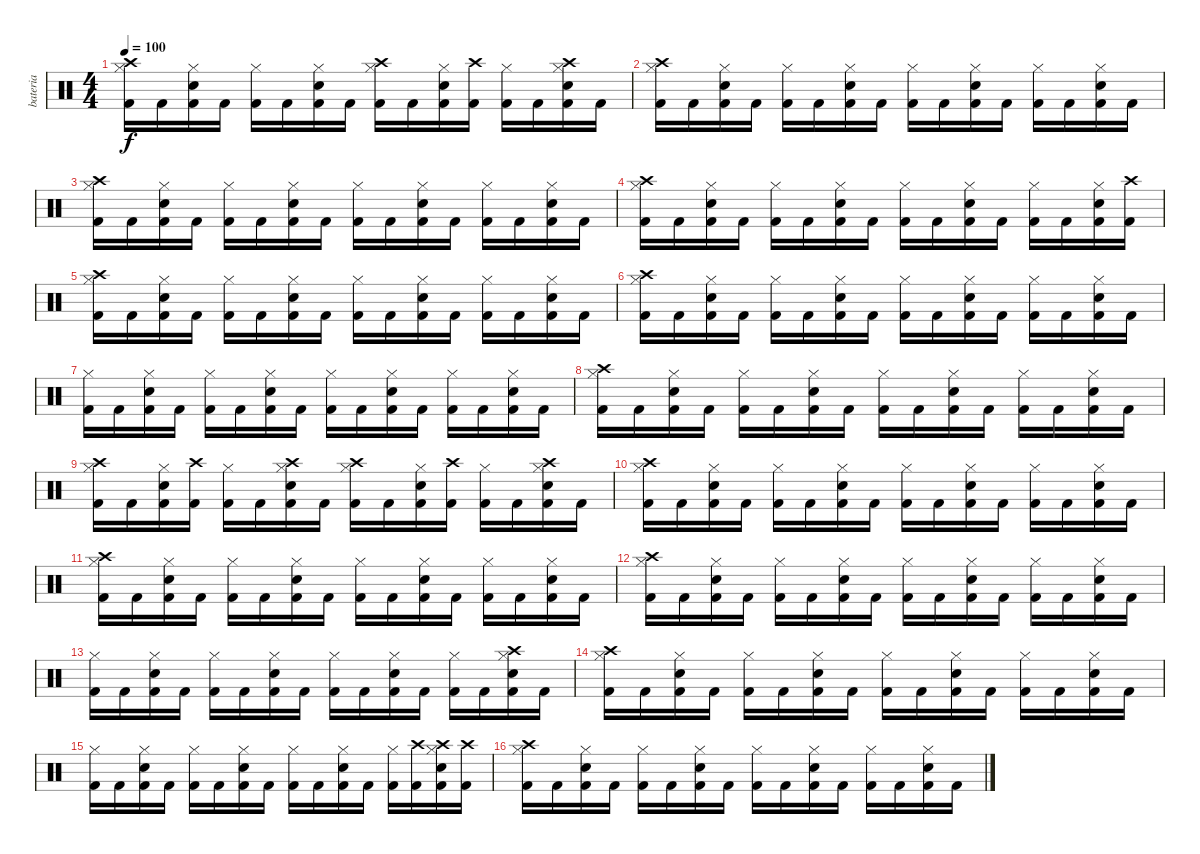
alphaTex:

\track ("bateria" "bateria") {instrument percussion}
\staff {score}
\articulation defaults
\ts (4 4)
\tempo 100
\clef neutral
\ks c
("Kick (hit) 2" "Hi-Hat (closed)" "Crash high (hit)").16{dy f} "Kick (hit) 2".16 ("Kick (hit) 2" "Electric Snare (hit)" "Hi-Hat (closed)").16 "Kick (hit) 2".16 ("Kick (hit) 2" "Hi-Hat (closed)").16 "Kick (hit) 2".16 ("Kick (hit) 2" "Electric Snare (hit)" "Hi-Hat (closed)").16 "Kick (hit) 2".16 ("Kick (hit) 2" "Hi-Hat (closed)" "Crash high (hit)").16 "Kick (hit) 2".16 ("Kick (hit) 2" "Electric Snare (hit)" "Hi-Hat (closed)").16 ("Kick (hit) 2" "Crash high (hit)").16 ("Kick (hit) 2" "Hi-Hat (closed)").16 "Kick (hit) 2".16 ("Kick (hit) 2" "Electric Snare (hit)" "Hi-Hat (closed)" "Crash high (hit)").16 "Kick (hit) 2".16 |
("Kick (hit) 2" "Hi-Hat (closed)" "Crash high (hit)").16 "Kick (hit) 2".16 ("Kick (hit) 2" "Electric Snare (hit)" "Hi-Hat (closed)").16 "Kick (hit) 2".16 ("Kick (hit) 2" "Hi-Hat (closed)").16 "Kick (hit) 2".16 ("Kick (hit) 2" "Electric Snare (hit)" "Hi-Hat (closed)").16 "Kick (hit) 2".16 ("Kick (hit) 2" "Hi-Hat (closed)").16 "Kick (hit) 2".16 ("Kick (hit) 2" "Electric Snare (hit)" "Hi-Hat (closed)").16 "Kick (hit) 2".16 ("Kick (hit) 2" "Hi-Hat (closed)").16 "Kick (hit) 2".16 ("Kick (hit) 2" "Electric Snare (hit)" "Hi-Hat (closed)").16 "Kick (hit) 2".16 |
("Kick (hit) 2" "Hi-Hat (closed)" "Crash high (hit)").16 "Kick (hit) 2".16 ("Kick (hit) 2" "Electric Snare (hit)" "Hi-Hat (closed)").16 "Kick (hit) 2".16 ("Kick (hit) 2" "Hi-Hat (closed)").16 "Kick (hit) 2".16 ("Kick (hit) 2" "Electric Snare (hit)" "Hi-Hat (closed)").16 "Kick (hit) 2".16 ("Kick (hit) 2" "Hi-Hat (closed)").16 "Kick (hit) 2".16 ("Kick (hit) 2" "Electric Snare (hit)" "Hi-Hat (closed)").16 "Kick (hit) 2".16 ("Kick (hit) 2" "Hi-Hat (closed)").16 "Kick (hit) 2".16 ("Kick (hit) 2" "Electric Snare (hit)" "Hi-Hat (closed)").16 "Kick (hit) 2".16 |
("Kick (hit) 2" "Hi-Hat (closed)" "Crash high (hit)").16 "Kick (hit) 2".16 ("Kick (hit) 2" "Electric Snare (hit)" "Hi-Hat (closed)").16 "Kick (hit) 2".16 ("Kick (hit) 2" "Hi-Hat (closed)").16 "Kick (hit) 2".16 ("Kick (hit) 2" "Electric Snare (hit)" "Hi-Hat (closed)").16 "Kick (hit) 2".16 ("Kick (hit) 2" "Hi-Hat (closed)").16 "Kick (hit) 2".16 ("Kick (hit) 2" "Electric Snare (hit)" "Hi-Hat (closed)").16 "Kick (hit) 2".16 ("Kick (hit) 2" "Hi-Hat (closed)").16 "Kick (hit) 2".16 ("Kick (hit) 2" "Electric Snare (hit)" "Hi-Hat (closed)").16 ("Kick (hit) 2" "Crash high (hit)").16 |
("Kick (hit) 2" "Hi-Hat (closed)" "Crash high (hit)").16 "Kick (hit) 2".16 ("Kick (hit) 2" "Electric Snare (hit)" "Hi-Hat (closed)").16 "Kick (hit) 2".16 ("Kick (hit) 2" "Hi-Hat (closed)").16 "Kick (hit) 2".16 ("Kick (hit) 2" "Electric Snare (hit)" "Hi-Hat (closed)").16 "Kick (hit) 2".16 ("Kick (hit) 2" "Hi-Hat (closed)").16 "Kick (hit) 2".16 ("Kick (hit) 2" "Electric Snare (hit)" "Hi-Hat (closed)").16 "Kick (hit) 2".16 ("Kick (hit) 2" "Hi-Hat (closed)").16 "Kick (hit) 2".16 ("Kick (hit) 2" "Electric Snare (hit)" "Hi-Hat (closed)").16 "Kick (hit) 2".16 |
("Kick (hit) 2" "Hi-Hat (closed)" "Crash high (hit)").16 "Kick (hit) 2".16 ("Kick (hit) 2" "Electric Snare (hit)" "Hi-Hat (closed)").16 "Kick (hit) 2".16 ("Kick (hit) 2" "Hi-Hat (closed)").16 "Kick (hit) 2".16 ("Kick (hit) 2" "Electric Snare (hit)" "Hi-Hat (closed)").16 "Kick (hit) 2".16 ("Kick (hit) 2" "Hi-Hat (closed)").16 "Kick (hit) 2".16 ("Kick (hit) 2" "Electric Snare (hit)" "Hi-Hat (closed)").16 "Kick (hit) 2".16 ("Kick (hit) 2" "Hi-Hat (closed)").16 "Kick (hit) 2".16 ("Kick (hit) 2" "Electric Snare (hit)" "Hi-Hat (closed)").16 "Kick (hit) 2".16 |
("Kick (hit) 2" "Hi-Hat (closed)").16 "Kick (hit) 2".16 ("Kick (hit) 2" "Electric Snare (hit)" "Hi-Hat (closed)").16 "Kick (hit) 2".16 ("Kick (hit) 2" "Hi-Hat (closed)").16 "Kick (hit) 2".16 ("Kick (hit) 2" "Electric Snare (hit)" "Hi-Hat (closed)").16 "Kick (hit) 2".16 ("Kick (hit) 2" "Hi-Hat (closed)").16 "Kick (hit) 2".16 ("Kick (hit) 2" "Electric Snare (hit)" "Hi-Hat (closed)").16 "Kick (hit) 2".16 ("Kick (hit) 2" "Hi-Hat (closed)").16 "Kick (hit) 2".16 ("Kick (hit) 2" "Electric Snare (hit)" "Hi-Hat (closed)").16 "Kick (hit) 2".16 |
("Kick (hit) 2" "Hi-Hat (closed)" "Crash high (hit)").16 "Kick (hit) 2".16 ("Kick (hit) 2" "Electric Snare (hit)" "Hi-Hat (closed)").16 "Kick (hit) 2".16 ("Kick (hit) 2" "Hi-Hat (closed)").16 "Kick (hit) 2".16 ("Kick (hit) 2" "Electric Snare (hit)" "Hi-Hat (closed)").16 "Kick (hit) 2".16 ("Kick (hit) 2" "Hi-Hat (closed)").16 "Kick (hit) 2".16 ("Kick (hit) 2" "Electric Snare (hit)" "Hi-Hat (closed)").16 "Kick (hit) 2".16 ("Kick (hit) 2" "Hi-Hat (closed)").16 "Kick (hit) 2".16 ("Kick (hit) 2" "Electric Snare (hit)" "Hi-Hat (closed)").16 "Kick (hit) 2".16 |
("Kick (hit) 2" "Hi-Hat (closed)" "Crash high (hit)").16 "Kick (hit) 2".16 ("Kick (hit) 2" "Electric Snare (hit)" "Hi-Hat (closed)").16 ("Kick (hit) 2" "Crash high (hit)").16 ("Kick (hit) 2" "Hi-Hat (closed)").16 "Kick (hit) 2".16 ("Kick (hit) 2" "Electric Snare (hit)" "Hi-Hat (closed)" "Crash high (hit)").16 "Kick (hit) 2".16 ("Kick (hit) 2" "Hi-Hat (closed)" "Crash high (hit)").16 "Kick (hit) 2".16 ("Kick (hit) 2" "Electric Snare (hit)" "Hi-Hat (closed)").16 ("Kick (hit) 2" "Crash high (hit)").16 ("Kick (hit) 2" "Hi-Hat (closed)").16 "Kick (hit) 2".16 ("Kick (hit) 2" "Electric Snare (hit)" "Hi-Hat (closed)" "Crash high (hit)").16 "Kick (hit) 2".16 |
("Kick (hit) 2" "Hi-Hat (closed)" "Crash high (hit)").16 "Kick (hit) 2".16 ("Kick (hit) 2" "Electric Snare (hit)" "Hi-Hat (closed)").16 "Kick (hit) 2".16 ("Kick (hit) 2" "Hi-Hat (closed)").16 "Kick (hit) 2".16 ("Kick (hit) 2" "Electric Snare (hit)" "Hi-Hat (closed)").16 "Kick (hit) 2".16 ("Kick (hit) 2" "Hi-Hat (closed)").16 "Kick (hit) 2".16 ("Kick (hit) 2" "Electric Snare (hit)" "Hi-Hat (closed)").16 "Kick (hit) 2".16 ("Kick (hit) 2" "Hi-Hat (closed)").16 "Kick (hit) 2".16 ("Kick (hit) 2" "Electric Snare (hit)" "Hi-Hat (closed)").16 "Kick (hit) 2".16 |
("Kick (hit) 2" "Hi-Hat (closed)" "Crash high (hit)").16 "Kick (hit) 2".16 ("Kick (hit) 2" "Electric Snare (hit)" "Hi-Hat (closed)").16 "Kick (hit) 2".16 ("Kick (hit) 2" "Hi-Hat (closed)").16 "Kick (hit) 2".16 ("Kick (hit) 2" "Electric Snare (hit)" "Hi-Hat (closed)").16 "Kick (hit) 2".16 ("Kick (hit) 2" "Hi-Hat (closed)").16 "Kick (hit) 2".16 ("Kick (hit) 2" "Electric Snare (hit)" "Hi-Hat (closed)").16 "Kick (hit) 2".16 ("Kick (hit) 2" "Hi-Hat (closed)").16 "Kick (hit) 2".16 ("Kick (hit) 2" "Electric Snare (hit)" "Hi-Hat (closed)").16 "Kick (hit) 2".16 |
("Kick (hit) 2" "Hi-Hat (closed)" "Crash high (hit)").16 "Kick (hit) 2".16 ("Kick (hit) 2" "Electric Snare (hit)" "Hi-Hat (closed)").16 "Kick (hit) 2".16 ("Kick (hit) 2" "Hi-Hat (closed)").16 "Kick (hit) 2".16 ("Kick (hit) 2" "Electric Snare (hit)" "Hi-Hat (closed)").16 "Kick (hit) 2".16 ("Kick (hit) 2" "Hi-Hat (closed)").16 "Kick (hit) 2".16 ("Kick (hit) 2" "Electric Snare (hit)" "Hi-Hat (closed)").16 "Kick (hit) 2".16 ("Kick (hit) 2" "Hi-Hat (closed)").16 "Kick (hit) 2".16 ("Kick (hit) 2" "Electric Snare (hit)" "Hi-Hat (closed)").16 "Kick (hit) 2".16 |
("Kick (hit) 2" "Hi-Hat (closed)").16 "Kick (hit) 2".16 ("Kick (hit) 2" "Electric Snare (hit)" "Hi-Hat (closed)").16 "Kick (hit) 2".16 ("Kick (hit) 2" "Hi-Hat (closed)").16 "Kick (hit) 2".16 ("Kick (hit) 2" "Electric Snare (hit)" "Hi-Hat (closed)").16 "Kick (hit) 2".16 ("Kick (hit) 2" "Hi-Hat (closed)").16 "Kick (hit) 2".16 ("Kick (hit) 2" "Electric Snare (hit)" "Hi-Hat (closed)").16 "Kick (hit) 2".16 ("Kick (hit) 2" "Hi-Hat (closed)").16 "Kick (hit) 2".16 ("Kick (hit) 2" "Electric Snare (hit)" "Hi-Hat (closed)" "Crash high (hit)").16 "Kick (hit) 2".16 |
("Kick (hit) 2" "Hi-Hat (closed)" "Crash high (hit)").16 "Kick (hit) 2".16 ("Kick (hit) 2" "Electric Snare (hit)" "Hi-Hat (closed)").16 "Kick (hit) 2".16 ("Kick (hit) 2" "Hi-Hat (closed)").16 "Kick (hit) 2".16 ("Kick (hit) 2" "Electric Snare (hit)" "Hi-Hat (closed)").16 "Kick (hit) 2".16 ("Kick (hit) 2" "Hi-Hat (closed)").16 "Kick (hit) 2".16 ("Kick (hit) 2" "Electric Snare (hit)" "Hi-Hat (closed)").16 "Kick (hit) 2".16 ("Kick (hit) 2" "Hi-Hat (closed)").16 "Kick (hit) 2".16 ("Kick (hit) 2" "Electric Snare (hit)" "Hi-Hat (closed)").16 "Kick (hit) 2".16 |
("Kick (hit) 2" "Hi-Hat (closed)").16 "Kick (hit) 2".16 ("Kick (hit) 2" "Electric Snare (hit)" "Hi-Hat (closed)").16 "Kick (hit) 2".16 ("Kick (hit) 2" "Hi-Hat (closed)").16 "Kick (hit) 2".16 ("Kick (hit) 2" "Electric Snare (hit)" "Hi-Hat (closed)").16 "Kick (hit) 2".16 ("Kick (hit) 2" "Hi-Hat (closed)").16 "Kick (hit) 2".16 ("Kick (hit) 2" "Electric Snare (hit)" "Hi-Hat (closed)").16 "Kick (hit) 2".16 ("Kick (hit) 2" "Hi-Hat (closed)").16 ("Kick (hit) 2" "Crash high (hit)").16 ("Kick (hit) 2" "Electric Snare (hit)" "Hi-Hat (closed)" "Crash high (hit)").16 ("Kick (hit) 2" "Crash high (hit)").16 |
("Kick (hit) 2" "Hi-Hat (closed)" "Crash high (hit)").16 "Kick (hit) 2".16 ("Kick (hit) 2" "Electric Snare (hit)" "Hi-Hat (closed)").16 "Kick (hit) 2".16 ("Kick (hit) 2" "Hi-Hat (closed)").16 "Kick (hit) 2".16 ("Kick (hit) 2" "Electric Snare (hit)" "Hi-Hat (closed)").16 "Kick (hit) 2".16 ("Kick (hit) 2" "Hi-Hat (closed)").16 "Kick (hit) 2".16 ("Kick (hit) 2" "Electric Snare (hit)" "Hi-Hat (closed)").16 "Kick (hit) 2".16 ("Kick (hit) 2" "Hi-Hat (closed)").16 "Kick (hit) 2".16 ("Kick (hit) 2" "Electric Snare (hit)" "Hi-Hat (closed)").16 "Kick (hit) 2".16
